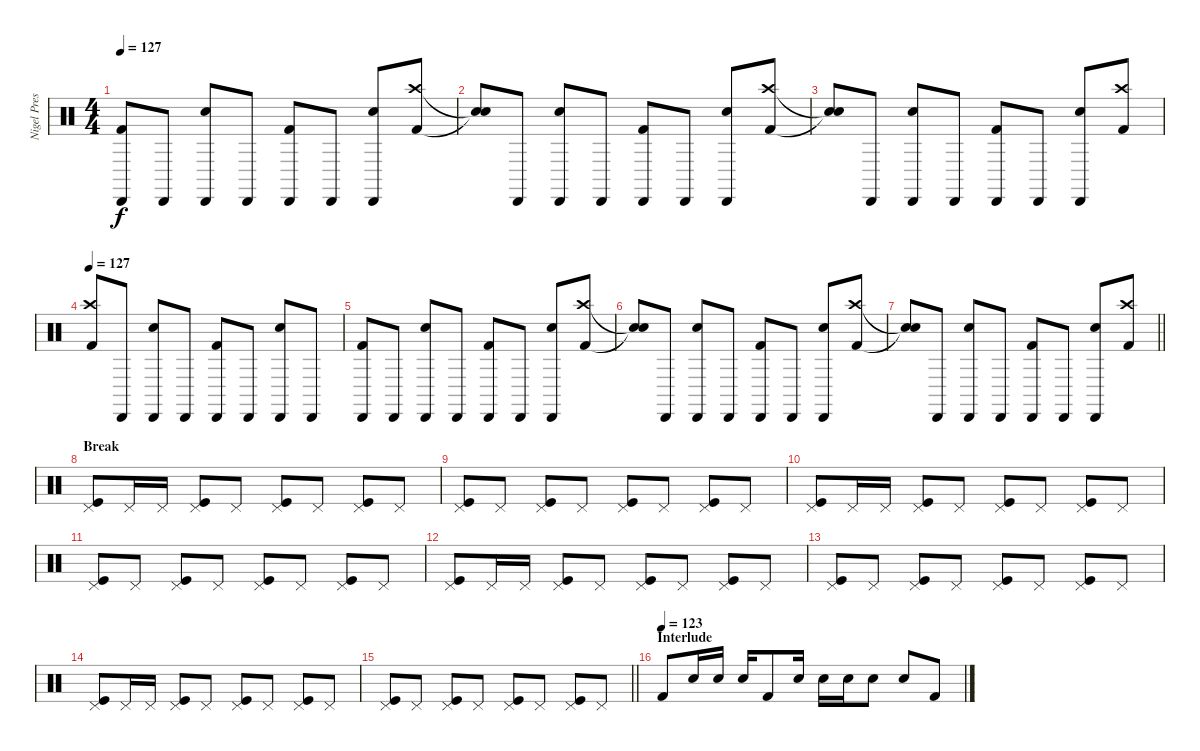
\track ("Nigel Preston" "Nigel Pres") {instrument percussion}
\staff {score}
\articulation defaults
\ts (4 4)
\tempo 127
\clef neutral
\ks c
("Kick (hit) 2" "Cabasa (hit)").8{dy f} "Cabasa (hit)".8 ("Snare (hit) 2" "Cabasa (hit)").8 "Cabasa (hit)".8 ("Kick (hit) 2" "Cabasa (hit)").8 "Cabasa (hit)".8 ("Snare (hit) 2" "Cabasa (hit)").8 ("Kick (hit) 2" "Crash high (hit)").8 |
("Snare (hit)"{t} "Snare (hit)"{t}).8 "Cabasa (hit)".8 ("Snare (hit) 2" "Cabasa (hit)").8 "Cabasa (hit)".8 ("Kick (hit) 2" "Cabasa (hit)").8 "Cabasa (hit)".8 ("Snare (hit) 2" "Cabasa (hit)").8 ("Kick (hit) 2" "Crash high (hit)").8 |
("Snare (hit)"{t} "Snare (hit)"{t}).8 "Cabasa (hit)".8 ("Snare (hit) 2" "Cabasa (hit)").8 "Cabasa (hit)".8 ("Kick (hit) 2" "Cabasa (hit)").8 "Cabasa (hit)".8 ("Snare (hit) 2" "Cabasa (hit)").8 ("Kick (hit) 2" "Crash high (hit)").8 |
\tempo 127
("Kick (hit) 2" "Crash high (hit)").8 "Cabasa (hit)".8 ("Snare (hit) 2" "Cabasa (hit)").8 "Cabasa (hit)".8 ("Kick (hit) 2" "Cabasa (hit)").8 "Cabasa (hit)".8 ("Snare (hit) 2" "Cabasa (hit)").8 "Cabasa (hit)".8 |
("Kick (hit) 2" "Cabasa (hit)").8 "Cabasa (hit)".8 ("Snare (hit) 2" "Cabasa (hit)").8 "Cabasa (hit)".8 ("Kick (hit) 2" "Cabasa (hit)").8 "Cabasa (hit)".8 ("Snare (hit) 2" "Cabasa (hit)").8 ("Kick (hit) 2" "Crash high (hit)").8 |
("Snare (hit)"{t} "Snare (hit)"{t}).8 "Cabasa (hit)".8 ("Snare (hit) 2" "Cabasa (hit)").8 "Cabasa (hit)".8 ("Kick (hit) 2" "Cabasa (hit)").8 "Cabasa (hit)".8 ("Snare (hit) 2" "Cabasa (hit)").8 ("Kick (hit) 2" "Crash high (hit)").8 |
\barLineRight lightlight
("Snare (hit)"{t} "Snare (hit)"{t}).8 "Cabasa (hit)".8 ("Snare (hit) 2" "Cabasa (hit)").8 "Cabasa (hit)".8 ("Kick (hit) 2" "Cabasa (hit)").8 "Cabasa (hit)".8 ("Snare (hit) 2" "Cabasa (hit)").8 ("Kick (hit) 2" "Crash high (hit)").8 |
\section ("" "Break")
("Kick (hit)" "Pedal Hi-Hat (hit)").8 "Pedal Hi-Hat (hit)".16 "Pedal Hi-Hat (hit)".16 ("Kick (hit)" "Pedal Hi-Hat (hit)").8 "Pedal Hi-Hat (hit)".8 ("Kick (hit)" "Pedal Hi-Hat (hit)").8 "Pedal Hi-Hat (hit)".8 ("Kick (hit)" "Pedal Hi-Hat (hit)").8 "Pedal Hi-Hat (hit)".8 |
("Kick (hit)" "Pedal Hi-Hat (hit)").8 "Pedal Hi-Hat (hit)".8 ("Kick (hit)" "Pedal Hi-Hat (hit)").8 "Pedal Hi-Hat (hit)".8 ("Kick (hit)" "Pedal Hi-Hat (hit)").8 "Pedal Hi-Hat (hit)".8 ("Kick (hit)" "Pedal Hi-Hat (hit)").8 "Pedal Hi-Hat (hit)".8 |
("Kick (hit)" "Pedal Hi-Hat (hit)").8 "Pedal Hi-Hat (hit)".16 "Pedal Hi-Hat (hit)".16 ("Kick (hit)" "Pedal Hi-Hat (hit)").8 "Pedal Hi-Hat (hit)".8 ("Kick (hit)" "Pedal Hi-Hat (hit)").8 "Pedal Hi-Hat (hit)".8 ("Kick (hit)" "Pedal Hi-Hat (hit)").8 "Pedal Hi-Hat (hit)".8 |
("Kick (hit)" "Pedal Hi-Hat (hit)").8 "Pedal Hi-Hat (hit)".8 ("Kick (hit)" "Pedal Hi-Hat (hit)").8 "Pedal Hi-Hat (hit)".8 ("Kick (hit)" "Pedal Hi-Hat (hit)").8 "Pedal Hi-Hat (hit)".8 ("Kick (hit)" "Pedal Hi-Hat (hit)").8 "Pedal Hi-Hat (hit)".8 |
("Kick (hit)" "Pedal Hi-Hat (hit)").8 "Pedal Hi-Hat (hit)".16 "Pedal Hi-Hat (hit)".16 ("Kick (hit)" "Pedal Hi-Hat (hit)").8 "Pedal Hi-Hat (hit)".8 ("Kick (hit)" "Pedal Hi-Hat (hit)").8 "Pedal Hi-Hat (hit)".8 ("Kick (hit)" "Pedal Hi-Hat (hit)").8 "Pedal Hi-Hat (hit)".8 |
("Kick (hit)" "Pedal Hi-Hat (hit)").8 "Pedal Hi-Hat (hit)".8 ("Kick (hit)" "Pedal Hi-Hat (hit)").8 "Pedal Hi-Hat (hit)".8 ("Kick (hit)" "Pedal Hi-Hat (hit)").8 "Pedal Hi-Hat (hit)".8 ("Kick (hit)" "Pedal Hi-Hat (hit)").8 "Pedal Hi-Hat (hit)".8 |
("Kick (hit)" "Pedal Hi-Hat (hit)").8 "Pedal Hi-Hat (hit)".16 "Pedal Hi-Hat (hit)".16 ("Kick (hit)" "Pedal Hi-Hat (hit)").8 "Pedal Hi-Hat (hit)".8 ("Kick (hit)" "Pedal Hi-Hat (hit)").8 "Pedal Hi-Hat (hit)".8 ("Kick (hit)" "Pedal Hi-Hat (hit)").8 "Pedal Hi-Hat (hit)".8 |
\barLineRight lightlight
("Kick (hit)" "Pedal Hi-Hat (hit)").8 "Pedal Hi-Hat (hit)".8 ("Kick (hit)" "Pedal Hi-Hat (hit)").8 "Pedal Hi-Hat (hit)".8 ("Kick (hit)" "Pedal Hi-Hat (hit)").8 "Pedal Hi-Hat (hit)".8 ("Kick (hit)" "Pedal Hi-Hat (hit)").8 "Pedal Hi-Hat (hit)".8 |
\section ("" "Interlude")
\tempo (123)
"Kick (hit) 2".8 "Snare (hit) 2".16 "Snare (hit) 2".16 "Snare (hit) 2".16 "Kick (hit) 2".8 "Snare (hit) 2".16 "Snare (hit) 2".16 "Snare (hit) 2".16 "Snare (hit) 2".8 "Snare (hit) 2".8 "Kick (hit) 2".8
